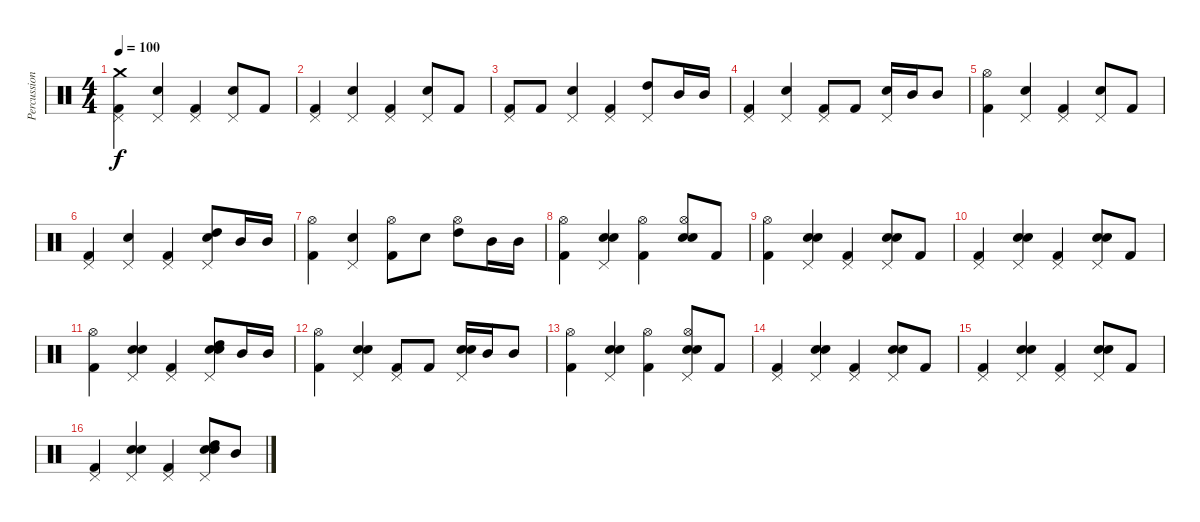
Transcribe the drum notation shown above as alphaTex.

\track ("Percussioni" "Percussion") {instrument percussion}
\staff {score}
\articulation defaults
\ts (4 4)
\tempo 100
\clef neutral
\ks c
("Crash medium (hit)" "Kick (hit) 2" "Pedal Hi-Hat (hit)").4{dy f} ("Electric Snare (hit)" "Pedal Hi-Hat (hit)").4 ("Kick (hit) 2" "Pedal Hi-Hat (hit)").4 ("Electric Snare (hit)" "Pedal Hi-Hat (hit)").8 "Kick (hit) 2".8 |
("Kick (hit) 2" "Pedal Hi-Hat (hit)").4 ("Electric Snare (hit)" "Pedal Hi-Hat (hit)").4 ("Kick (hit) 2" "Pedal Hi-Hat (hit)").4 ("Electric Snare (hit)" "Pedal Hi-Hat (hit)").8 "Kick (hit) 2".8 |
("Kick (hit) 2" "Pedal Hi-Hat (hit)").8 "Kick (hit) 2".8 ("Electric Snare (hit)" "Pedal Hi-Hat (hit)").4 ("Kick (hit) 2" "Pedal Hi-Hat (hit)").4 ("High Tom (hit)" "Pedal Hi-Hat (hit)").8 "Mid Tom (hit)".16 "Mid Tom (hit)".16 |
("Kick (hit) 2" "Pedal Hi-Hat (hit)").4 ("Electric Snare (hit)" "Pedal Hi-Hat (hit)").4 ("Kick (hit) 2" "Pedal Hi-Hat (hit)").8 "Kick (hit) 2".8 ("Electric Snare (hit)" "Pedal Hi-Hat (hit)").16 "Mid Tom (hit)".16 "Mid Tom (hit)".8 |
("Hi-Hat (open)" "Kick (hit) 2").4 ("Electric Snare (hit)" "Pedal Hi-Hat (hit)").4 ("Kick (hit) 2" "Pedal Hi-Hat (hit)").4 ("Electric Snare (hit)" "Pedal Hi-Hat (hit)").8 "Kick (hit) 2".8 |
("Kick (hit) 2" "Pedal Hi-Hat (hit)").4 ("Electric Snare (hit)" "Pedal Hi-Hat (hit)").4 ("Kick (hit) 2" "Pedal Hi-Hat (hit)").4 ("Electric Snare (hit)" "High Tom (hit)" "Pedal Hi-Hat (hit)").8 "Mid Tom (hit)".16 "Mid Tom (hit)".16 |
("Hi-Hat (open)" "Kick (hit) 2").4 ("Electric Snare (hit)" "Pedal Hi-Hat (hit)").4 ("Hi-Hat (open)" "Kick (hit) 2").8 "Electric Snare (hit)".8 ("Hi-Hat (open)" "High Tom (hit)").8 "Mid Tom (hit)".16 "Mid Tom (hit)".16 |
("Hi-Hat (open)" "Kick (hit) 2").4 ("Snare (hit) 2" "Electric Snare (hit)" "Pedal Hi-Hat (hit)").4 ("Hi-Hat (open)" "Kick (hit) 2").4 ("Hi-Hat (open)" "Snare (hit) 2" "Electric Snare (hit)").8 "Kick (hit) 2".8 |
("Hi-Hat (open)" "Kick (hit) 2").4 ("Snare (hit) 2" "Electric Snare (hit)" "Pedal Hi-Hat (hit)").4 ("Kick (hit) 2" "Pedal Hi-Hat (hit)").4 ("Snare (hit) 2" "Electric Snare (hit)" "Pedal Hi-Hat (hit)").8 "Kick (hit) 2".8 |
("Kick (hit) 2" "Pedal Hi-Hat (hit)").4 ("Snare (hit) 2" "Electric Snare (hit)" "Pedal Hi-Hat (hit)").4 ("Kick (hit) 2" "Pedal Hi-Hat (hit)").4 ("Snare (hit) 2" "Electric Snare (hit)" "Pedal Hi-Hat (hit)").8 "Kick (hit) 2".8 |
("Hi-Hat (open)" "Kick (hit) 2").4 ("Snare (hit) 2" "Electric Snare (hit)" "Pedal Hi-Hat (hit)").4 ("Kick (hit) 2" "Pedal Hi-Hat (hit)").4 ("Snare (hit) 2" "Electric Snare (hit)" "High Tom (hit)" "Pedal Hi-Hat (hit)").8 "Mid Tom (hit)".16 "Mid Tom (hit)".16 |
("Hi-Hat (open)" "Kick (hit) 2").4 ("Snare (hit) 2" "Electric Snare (hit)" "Pedal Hi-Hat (hit)").4 ("Kick (hit) 2" "Pedal Hi-Hat (hit)").8 "Kick (hit) 2".8 ("Snare (hit) 2" "Electric Snare (hit)" "Pedal Hi-Hat (hit)").16 "Mid Tom (hit)".16 "Mid Tom (hit)".8 |
("Hi-Hat (open)" "Kick (hit) 2").4 ("Snare (hit) 2" "Electric Snare (hit)" "Pedal Hi-Hat (hit)").4 ("Hi-Hat (open)" "Kick (hit) 2").4 ("Hi-Hat (open)" "Snare (hit) 2" "Electric Snare (hit)" "Pedal Hi-Hat (hit)").8 "Kick (hit) 2".8 |
("Kick (hit) 2" "Pedal Hi-Hat (hit)").4 ("Snare (hit) 2" "Electric Snare (hit)" "Pedal Hi-Hat (hit)").4 ("Kick (hit) 2" "Pedal Hi-Hat (hit)").4 ("Snare (hit) 2" "Electric Snare (hit)" "Pedal Hi-Hat (hit)").8 "Kick (hit) 2".8 |
("Kick (hit) 2" "Pedal Hi-Hat (hit)").4 ("Snare (hit) 2" "Electric Snare (hit)" "Pedal Hi-Hat (hit)").4 ("Kick (hit) 2" "Pedal Hi-Hat (hit)").4 ("Snare (hit) 2" "Electric Snare (hit)" "Pedal Hi-Hat (hit)").8 "Kick (hit) 2".8 |
("Kick (hit) 2" "Pedal Hi-Hat (hit)").4 ("Snare (hit) 2" "Electric Snare (hit)" "Pedal Hi-Hat (hit)").4 ("Kick (hit) 2" "Pedal Hi-Hat (hit)").4 ("Snare (hit) 2" "Electric Snare (hit)" "High Tom (hit)" "Pedal Hi-Hat (hit)").8 "Mid Tom (hit)".8
